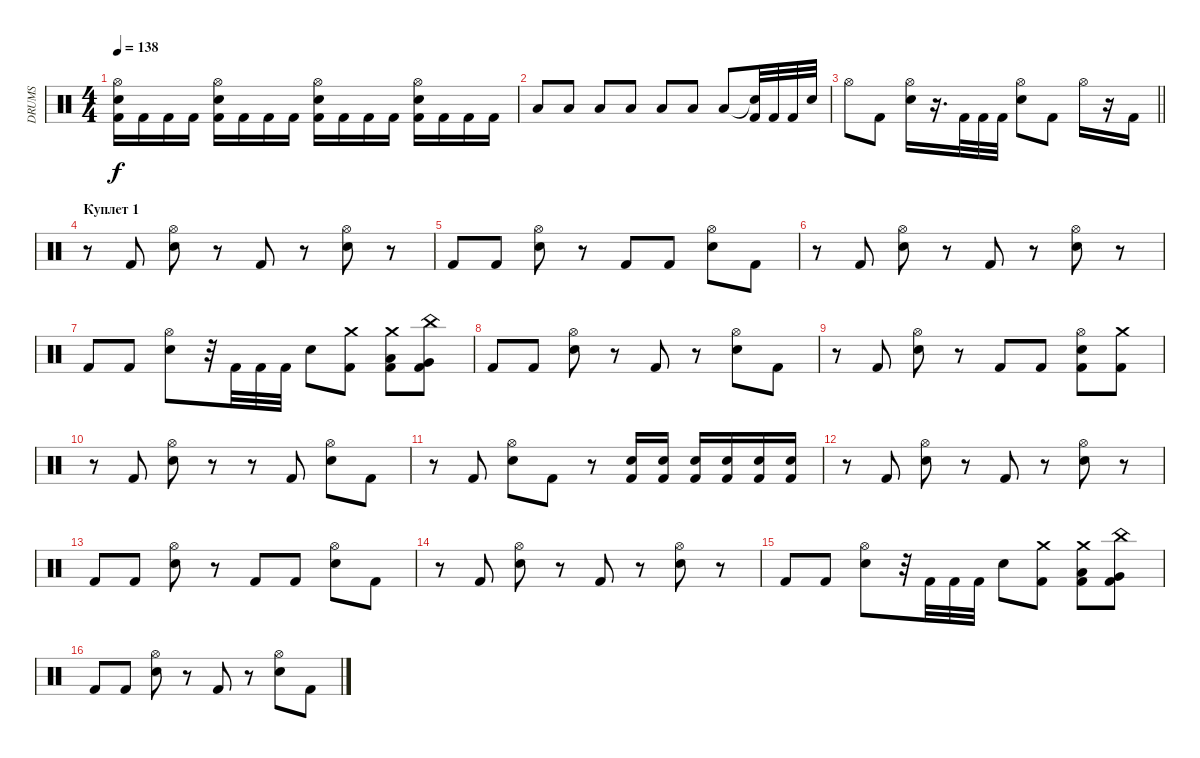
\track ("DRUMS" "DRUMS") {instrument percussion}
\staff {score}
\articulation defaults
\ts (4 4)
\tempo 138
\clef neutral
\ks c
("Hi-Hat (open)" "Electric Snare (hit)" "Kick (hit) 2").16{dy f} "Kick (hit) 2".16 "Kick (hit) 2".16 "Kick (hit) 2".16 ("Hi-Hat (open)" "Electric Snare (hit)" "Kick (hit) 2").16 "Kick (hit) 2".16 "Kick (hit) 2".16 "Kick (hit) 2".16 ("Hi-Hat (open)" "Electric Snare (hit)" "Kick (hit) 2").16 "Kick (hit) 2".16 "Kick (hit) 2".16 "Kick (hit) 2".16 ("Hi-Hat (open)" "Electric Snare (hit)" "Kick (hit) 2").16 "Kick (hit) 2".16 "Kick (hit) 2".16 "Kick (hit) 2".16 |
"Low Floor Tom (hit)".8 "Low Floor Tom (hit)".8 "Low Floor Tom (hit)".8 "Low Floor Tom (hit)".8 "Low Floor Tom (hit)".8 "Low Floor Tom (hit)".8 "Low Floor Tom (hit)".8 ("Electric Snare (hit)"{t} "Kick (hit) 2").32 "Kick (hit) 2".32 "Kick (hit) 2".32 "Electric Snare (hit)".32 |
\barLineRight lightlight "Hi-Hat (open)".8 "Kick (hit) 2".8
("Hi-Hat (open)" "Electric Snare (hit)").16 r.16{d} "Kick (hit) 2".32 "Kick (hit) 2".32 "Kick (hit) 2".32 ("Hi-Hat (open)" "Electric Snare (hit)").8 "Kick (hit) 2".8 "Hi-Hat (open)".16 r.16 "Kick (hit) 2".16 |
\section ("" "Куплет 1")
r.8 "Kick (hit) 2".8 ("Hi-Hat (open)" "Electric Snare (hit)").8 r.8 "Kick (hit) 2".8 r.8 ("Hi-Hat (open)" "Electric Snare (hit)").8 r.8 |
"Kick (hit) 2".8 "Kick (hit) 2".8 ("Hi-Hat (open)" "Electric Snare (hit)").8 r.8 "Kick (hit) 2".8 "Kick (hit) 2".8 ("Hi-Hat (open)" "Electric Snare (hit)").8 "Kick (hit) 2".8 |
r.8 "Kick (hit) 2".8 ("Hi-Hat (open)" "Electric Snare (hit)").8 r.8 "Kick (hit) 2".8 r.8 ("Hi-Hat (open)" "Electric Snare (hit)").8 r.8 |
"Kick (hit) 2".8 "Kick (hit) 2".8 ("Hi-Hat (open)" "Electric Snare (hit)").8 r.32 "Kick (hit) 2".32 "Kick (hit) 2".32 "Kick (hit) 2".32 "Electric Snare (hit)".8 ("Crash medium (hit)" "Kick (hit) 2").8 ("Crash medium (hit)" "Low Floor Tom (hit)" "Kick (hit) 2").8 ("China (hit)" "Very Low Tom (hit)" "Kick (hit) 2").8 |
"Kick (hit) 2".8 "Kick (hit) 2".8 ("Hi-Hat (open)" "Electric Snare (hit)").8 r.8 "Kick (hit) 2".8 r.8 ("Hi-Hat (open)" "Electric Snare (hit)").8 "Kick (hit) 2".8 |
r.8 "Kick (hit) 2".8 ("Hi-Hat (open)" "Electric Snare (hit)").8 r.8 "Kick (hit) 2".8 "Kick (hit) 2".8 ("Hi-Hat (open)" "Electric Snare (hit)" "Kick (hit) 2").8 ("Crash medium (hit)" "Kick (hit) 2").8 |
r.8 "Kick (hit) 2".8 ("Hi-Hat (open)" "Electric Snare (hit)").8 r.8 r.8 "Kick (hit) 2".8 ("Hi-Hat (open)" "Electric Snare (hit)").8 "Kick (hit) 2".8 |
r.8 "Kick (hit) 2".8 ("Hi-Hat (open)" "Electric Snare (hit)").8 "Kick (hit) 2".8 r.8 ("Electric Snare (hit)" "Kick (hit) 2").16 ("Electric Snare (hit)" "Kick (hit) 2").16 ("Electric Snare (hit)" "Kick (hit) 2").16 ("Electric Snare (hit)" "Kick (hit) 2").16 ("Electric Snare (hit)" "Kick (hit) 2").16 ("Electric Snare (hit)" "Kick (hit) 2").16 |
r.8 "Kick (hit) 2".8 ("Hi-Hat (open)" "Electric Snare (hit)").8 r.8 "Kick (hit) 2".8 r.8 ("Hi-Hat (open)" "Electric Snare (hit)").8 r.8 |
"Kick (hit) 2".8 "Kick (hit) 2".8 ("Hi-Hat (open)" "Electric Snare (hit)").8 r.8 "Kick (hit) 2".8 "Kick (hit) 2".8 ("Hi-Hat (open)" "Electric Snare (hit)").8 "Kick (hit) 2".8 |
r.8 "Kick (hit) 2".8 ("Hi-Hat (open)" "Electric Snare (hit)").8 r.8 "Kick (hit) 2".8 r.8 ("Hi-Hat (open)" "Electric Snare (hit)").8 r.8 |
"Kick (hit) 2".8 "Kick (hit) 2".8 ("Hi-Hat (open)" "Electric Snare (hit)").8 r.32 "Kick (hit) 2".32 "Kick (hit) 2".32 "Kick (hit) 2".32 "Electric Snare (hit)".8 ("Crash medium (hit)" "Kick (hit) 2").8 ("Crash medium (hit)" "Low Floor Tom (hit)" "Kick (hit) 2").8 ("China (hit)" "Very Low Tom (hit)" "Kick (hit) 2").8 |
"Kick (hit) 2".8 "Kick (hit) 2".8 ("Hi-Hat (open)" "Electric Snare (hit)").8 r.8 "Kick (hit) 2".8 r.8 ("Hi-Hat (open)" "Electric Snare (hit)").8 "Kick (hit) 2".8
